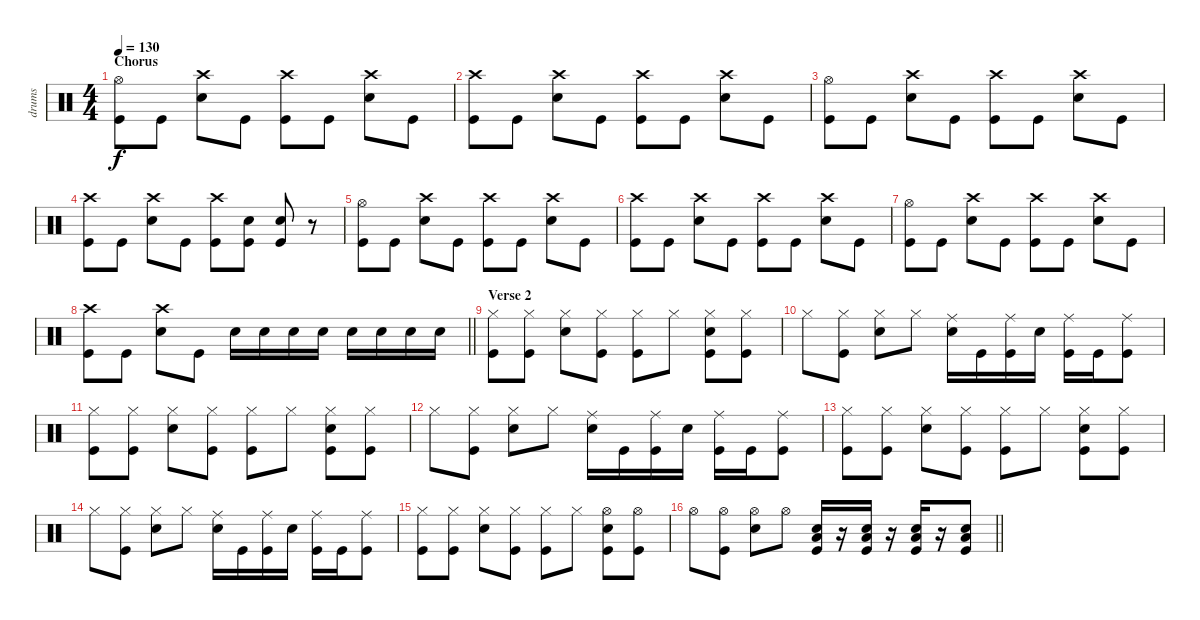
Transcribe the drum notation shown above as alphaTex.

\track ("drums" "drums") {instrument percussion}
\staff {score}
\articulation defaults
\ts (4 4)
\section ("" "Chorus")
\tempo 130
\clef neutral
\ks c
("Hi-Hat (open)" "Kick (hit)").8{dy f} "Kick (hit)".8 ("Crash high (hit)" "Snare (hit) 2").8 "Kick (hit)".8 ("Crash high (hit)" "Kick (hit)").8 "Kick (hit)".8 ("Crash high (hit)" "Snare (hit) 2").8 "Kick (hit)".8 |
("Crash high (hit)" "Kick (hit)").8 "Kick (hit)".8 ("Crash high (hit)" "Snare (hit) 2").8 "Kick (hit)".8 ("Crash high (hit)" "Kick (hit)").8 "Kick (hit)".8 ("Crash high (hit)" "Snare (hit) 2").8 "Kick (hit)".8 |
("Hi-Hat (open)" "Kick (hit)").8 "Kick (hit)".8 ("Crash high (hit)" "Snare (hit) 2").8 "Kick (hit)".8 ("Crash high (hit)" "Kick (hit)").8 "Kick (hit)".8 ("Crash high (hit)" "Snare (hit) 2").8 "Kick (hit)".8 |
("Crash high (hit)" "Kick (hit)").8 "Kick (hit)".8 ("Crash high (hit)" "Snare (hit) 2").8 "Kick (hit)".8 ("Crash high (hit)" "Kick (hit)").8 ("Snare (hit) 2" "Kick (hit)").8 ("Snare (hit) 2" "Kick (hit)").8 r.8 |
("Hi-Hat (open)" "Kick (hit)").8 "Kick (hit)".8 ("Crash high (hit)" "Snare (hit) 2").8 "Kick (hit)".8 ("Crash high (hit)" "Kick (hit)").8 "Kick (hit)".8 ("Crash high (hit)" "Snare (hit) 2").8 "Kick (hit)".8 |
("Crash high (hit)" "Kick (hit)").8 "Kick (hit)".8 ("Crash high (hit)" "Snare (hit) 2").8 "Kick (hit)".8 ("Crash high (hit)" "Kick (hit)").8 "Kick (hit)".8 ("Crash high (hit)" "Snare (hit) 2").8 "Kick (hit)".8 |
("Hi-Hat (open)" "Kick (hit)").8 "Kick (hit)".8 ("Crash high (hit)" "Snare (hit) 2").8 "Kick (hit)".8 ("Crash high (hit)" "Kick (hit)").8 "Kick (hit)".8 ("Crash high (hit)" "Snare (hit) 2").8 "Kick (hit)".8 |
\barLineRight lightlight
("Crash high (hit)" "Kick (hit)").8 "Kick (hit)".8 ("Crash high (hit)" "Snare (hit) 2").8 "Kick (hit)".8 "Snare (hit) 2".16 "Snare (hit) 2".16 "Snare (hit) 2".16 "Snare (hit) 2".16 "Snare (hit) 2".16 "Snare (hit) 2".16 "Snare (hit) 2".16 "Snare (hit) 2".16 |
\section ("" "Verse 2")
("Hi-Hat (closed)" "Kick (hit)").8 ("Hi-Hat (closed)" "Kick (hit)").8 ("Hi-Hat (closed)" "Snare (hit) 2").8 ("Hi-Hat (closed)" "Kick (hit)").8 ("Hi-Hat (closed)" "Kick (hit)").8 "Hi-Hat (closed)".8 ("Hi-Hat (closed)" "Snare (hit) 2" "Kick (hit)").8 ("Hi-Hat (closed)" "Kick (hit)").8 |
"Hi-Hat (closed)".8 ("Hi-Hat (closed)" "Kick (hit)").8 ("Hi-Hat (closed)" "Snare (hit) 2").8 "Hi-Hat (closed)".8 ("Snare (hit) 2" "Ride (middle)").16 "Kick (hit)".16 ("Kick (hit)" "Ride (middle)").16 "Snare (hit) 2".16 ("Kick (hit)" "Ride (middle)").16 "Kick (hit)".16 ("Kick (hit)" "Ride (middle)").8 |
("Hi-Hat (closed)" "Kick (hit)").8 ("Hi-Hat (closed)" "Kick (hit)").8 ("Hi-Hat (closed)" "Snare (hit) 2").8 ("Hi-Hat (closed)" "Kick (hit)").8 ("Hi-Hat (closed)" "Kick (hit)").8 "Hi-Hat (closed)".8 ("Hi-Hat (closed)" "Snare (hit) 2" "Kick (hit)").8 ("Hi-Hat (closed)" "Kick (hit)").8 |
"Hi-Hat (closed)".8 ("Hi-Hat (closed)" "Kick (hit)").8 ("Hi-Hat (closed)" "Snare (hit) 2").8 "Hi-Hat (closed)".8 ("Snare (hit) 2" "Ride (middle)").16 "Kick (hit)".16 ("Kick (hit)" "Ride (middle)").16 "Snare (hit) 2".16 ("Kick (hit)" "Ride (middle)").16 "Kick (hit)".16 ("Kick (hit)" "Ride (middle)").8 |
("Hi-Hat (closed)" "Kick (hit)").8 ("Hi-Hat (closed)" "Kick (hit)").8 ("Hi-Hat (closed)" "Snare (hit) 2").8 ("Hi-Hat (closed)" "Kick (hit)").8 ("Hi-Hat (closed)" "Kick (hit)").8 "Hi-Hat (closed)".8 ("Hi-Hat (closed)" "Snare (hit) 2" "Kick (hit)").8 ("Hi-Hat (closed)" "Kick (hit)").8 |
"Hi-Hat (closed)".8 ("Hi-Hat (closed)" "Kick (hit)").8 ("Hi-Hat (closed)" "Snare (hit) 2").8 "Hi-Hat (closed)".8 ("Snare (hit) 2" "Ride (middle)").16 "Kick (hit)".16 ("Kick (hit)" "Ride (middle)").16 "Snare (hit) 2".16 ("Kick (hit)" "Ride (middle)").16 "Kick (hit)".16 ("Kick (hit)" "Ride (middle)").8 |
("Hi-Hat (closed)" "Kick (hit)").8 ("Hi-Hat (closed)" "Kick (hit)").8 ("Hi-Hat (closed)" "Snare (hit) 2").8 ("Hi-Hat (closed)" "Kick (hit)").8 ("Hi-Hat (closed)" "Kick (hit)").8 "Hi-Hat (closed)".8 ("Hi-Hat (open)" "Snare (hit) 2" "Kick (hit)").8 ("Hi-Hat (open)" "Kick (hit)").8 |
\barLineRight lightlight "Hi-Hat (open)".8
("Hi-Hat (open)" "Kick (hit)").8 ("Hi-Hat (open)" "Snare (hit) 2").8 "Hi-Hat (open)".8 ("Snare (hit) 2" "Low Tom (hit)" "Kick (hit)").16 r.16 ("Snare (hit) 2" "Low Tom (hit)" "Kick (hit)").16 r.16 ("Snare (hit) 2" "Low Tom (hit)" "Kick (hit)").16 r.16 ("Snare (hit) 2" "Low Tom (hit)" "Kick (hit)").8
